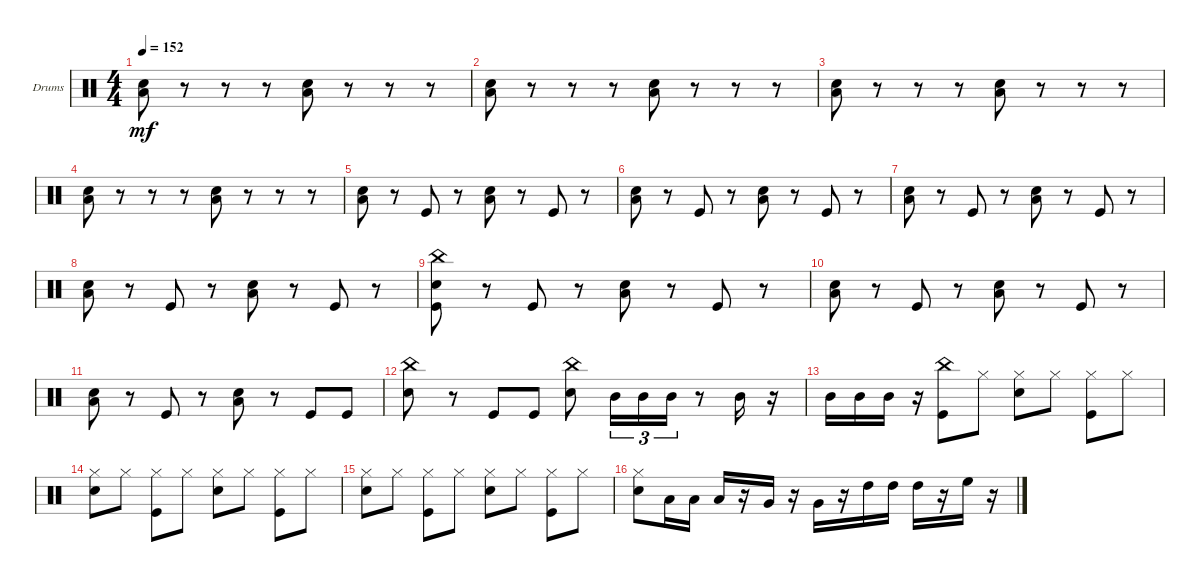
\defaultSystemsLayout 4
\bracketExtendMode groupsimilarinstruments
\firstSystemTrackNameOrientation horizontal
\otherSystemsTrackNameOrientation horizontal
\track ("Drumkit" "Drums") {instrument percussion}
\staff {score}
\articulation defaults
\ts (4 4)
\tempo 152
\clef neutral
\ks c
("Low Tom (hit)" "Snare (hit) 2").8{dy mf} r.8 r.8 r.8 ("Low Tom (hit)" "Snare (hit) 2").8 r.8 r.8 r.8 |
("Low Tom (hit)" "Snare (hit) 2").8 r.8 r.8 r.8 ("Low Tom (hit)" "Snare (hit) 2").8 r.8 r.8 r.8 |
("Low Tom (hit)" "Snare (hit) 2").8 r.8 r.8 r.8 ("Low Tom (hit)" "Snare (hit) 2").8 r.8 r.8 r.8 |
("Low Tom (hit)" "Snare (hit) 2").8 r.8 r.8 r.8 ("Low Tom (hit)" "Snare (hit) 2").8 r.8 r.8 r.8 |
("Low Tom (hit)" "Snare (hit) 2").8 r.8 "Kick (hit)".8 r.8 ("Low Tom (hit)" "Snare (hit) 2").8 r.8 "Kick (hit)".8 r.8 |
("Low Tom (hit)" "Snare (hit) 2").8 r.8 "Kick (hit)".8 r.8 ("Low Tom (hit)" "Snare (hit) 2").8 r.8 "Kick (hit)".8 r.8 |
("Low Tom (hit)" "Snare (hit) 2").8 r.8 "Kick (hit)".8 r.8 ("Low Tom (hit)" "Snare (hit) 2").8 r.8 "Kick (hit)".8 r.8 |
("Low Tom (hit)" "Snare (hit) 2").8 r.8 "Kick (hit)".8 r.8 ("Low Tom (hit)" "Snare (hit) 2").8 r.8 "Kick (hit)".8 r.8 |
("Snare (hit) 2" "Kick (hit)" "China (hit)").8 r.8 "Kick (hit)".8 r.8 ("Low Tom (hit)" "Snare (hit) 2").8 r.8 "Kick (hit)".8 r.8 |
("Low Tom (hit)" "Snare (hit) 2").8 r.8 "Kick (hit)".8 r.8 ("Low Tom (hit)" "Snare (hit) 2").8 r.8 "Kick (hit)".8 r.8 |
("Low Tom (hit)" "Snare (hit) 2").8 r.8 "Kick (hit)".8 r.8 ("Low Tom (hit)" "Snare (hit) 2").8 r.8 "Kick (hit)".8 "Kick (hit)".8 |
("Snare (hit) 2" "China (hit)").8 r.8 "Kick (hit)".8 "Kick (hit)".8 ("Snare (hit) 2" "China (hit)").8 "Mid Tom (hit)".16{tu (3 2)} "Mid Tom (hit)".16{tu (3 2)} "Mid Tom (hit)".16{tu (3 2)} r.8 "Mid Tom (hit)".16 r.16 |
"Mid Tom (hit)".16 "Mid Tom (hit)".16 "Mid Tom (hit)".16 r.16 ("Kick (hit)" "China (hit)").8 "Hi-Hat (closed)".8 ("Snare (hit) 2" "Hi-Hat (closed)").8 "Hi-Hat (closed)".8 ("Kick (hit)" "Hi-Hat (closed)").8 "Hi-Hat (closed)".8 |
("Hi-Hat (closed)" "Snare (hit) 2").8 "Hi-Hat (closed)".8 ("Hi-Hat (closed)" "Kick (hit)").8 "Hi-Hat (closed)".8 ("Hi-Hat (closed)" "Snare (hit) 2").8 "Hi-Hat (closed)".8 ("Hi-Hat (closed)" "Kick (hit)").8 "Hi-Hat (closed)".8 |
("Snare (hit) 2" "Hi-Hat (closed)").8 "Hi-Hat (closed)".8 ("Hi-Hat (closed)" "Kick (hit)").8 "Hi-Hat (closed)".8 ("Hi-Hat (closed)" "Snare (hit) 2").8 "Hi-Hat (closed)".8 ("Hi-Hat (closed)" "Kick (hit)").8 "Hi-Hat (closed)".8 |
("Snare (hit) 2" "Hi-Hat (closed)").8 "Low Tom (hit)".16 "Low Tom (hit)".16 "Low Tom (hit)".16 r.16 "Very Low Tom (hit)".16 r.16 "Very Low Tom (hit)".16 r.16 "High Tom (hit)".16 "High Tom (hit)".16 "High Tom (hit)".16 r.16 "High Floor Tom (hit)".16 r.16
